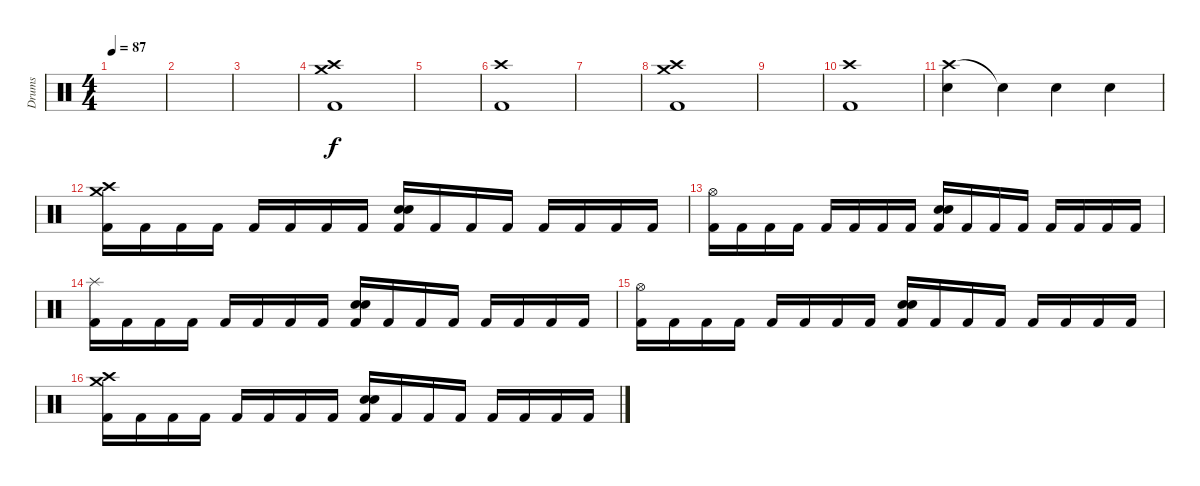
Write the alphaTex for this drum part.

\track ("Drums" "Drums") {instrument percussion}
\staff {score}
\articulation defaults
\ts (4 4)
\tempo 87
\clef neutral
\ks c
|
|
|
("Crash medium (hit)" "Crash high (hit)" "Kick (hit) 2").1 |
|
("Crash high (hit)" "Kick (hit) 2").1 |
|
("Crash medium (hit)" "Crash high (hit)" "Kick (hit) 2").1 |
|
("Crash high (hit)" "Kick (hit) 2").1 |
("Crash high (hit)" "Snare (hit) 2").4 "Snare (hit)"{t}.4 "Electric Snare (hit)".4 "Electric Snare (hit)".4 |
("Kick (hit) 2" "Crash medium (hit)" "Crash high (hit)").16 "Kick (hit) 2".16 "Kick (hit) 2".16 "Kick (hit) 2".16 "Kick (hit) 2".16 "Kick (hit) 2".16 "Kick (hit) 2".16 "Kick (hit) 2".16 ("Kick (hit) 2" "Snare (hit) 2" "Snare (hit) 2").16 "Kick (hit) 2".16 "Kick (hit) 2".16 "Kick (hit) 2".16 "Kick (hit) 2".16 "Kick (hit) 2".16 "Kick (hit) 2".16 "Kick (hit) 2".16 |
("Kick (hit) 2" "Hi-Hat (open)").16 "Kick (hit) 2".16 "Kick (hit) 2".16 "Kick (hit) 2".16 "Kick (hit) 2".16 "Kick (hit) 2".16 "Kick (hit) 2".16 "Kick (hit) 2".16 ("Kick (hit) 2" "Electric Snare (hit)" "Electric Snare (hit)").16 "Kick (hit) 2".16 "Kick (hit) 2".16 "Kick (hit) 2".16 "Kick (hit) 2".16 "Kick (hit) 2".16 "Kick (hit) 2".16 "Kick (hit) 2".16 |
("Kick (hit) 2" "Splash (hit)").16 "Kick (hit) 2".16 "Kick (hit) 2".16 "Kick (hit) 2".16 "Kick (hit) 2".16 "Kick (hit) 2".16 "Kick (hit) 2".16 "Kick (hit) 2".16 ("Kick (hit) 2" "Snare (hit) 2" "Snare (hit) 2").16 "Kick (hit) 2".16 "Kick (hit) 2".16 "Kick (hit) 2".16 "Kick (hit) 2".16 "Kick (hit) 2".16 "Kick (hit) 2".16 "Kick (hit) 2".16 |
("Kick (hit) 2" "Hi-Hat (open)").16 "Kick (hit) 2".16 "Kick (hit) 2".16 "Kick (hit) 2".16 "Kick (hit) 2".16 "Kick (hit) 2".16 "Kick (hit) 2".16 "Kick (hit) 2".16 ("Kick (hit) 2" "Electric Snare (hit)" "Electric Snare (hit)").16 "Kick (hit) 2".16 "Kick (hit) 2".16 "Kick (hit) 2".16 "Kick (hit) 2".16 "Kick (hit) 2".16 "Kick (hit) 2".16 "Kick (hit) 2".16 |
("Kick (hit) 2" "Crash medium (hit)" "Crash high (hit)").16 "Kick (hit) 2".16 "Kick (hit) 2".16 "Kick (hit) 2".16 "Kick (hit) 2".16 "Kick (hit) 2".16 "Kick (hit) 2".16 "Kick (hit) 2".16 ("Kick (hit) 2" "Snare (hit) 2" "Snare (hit) 2").16 "Kick (hit) 2".16 "Kick (hit) 2".16 "Kick (hit) 2".16 "Kick (hit) 2".16 "Kick (hit) 2".16 "Kick (hit) 2".16 "Kick (hit) 2".16
